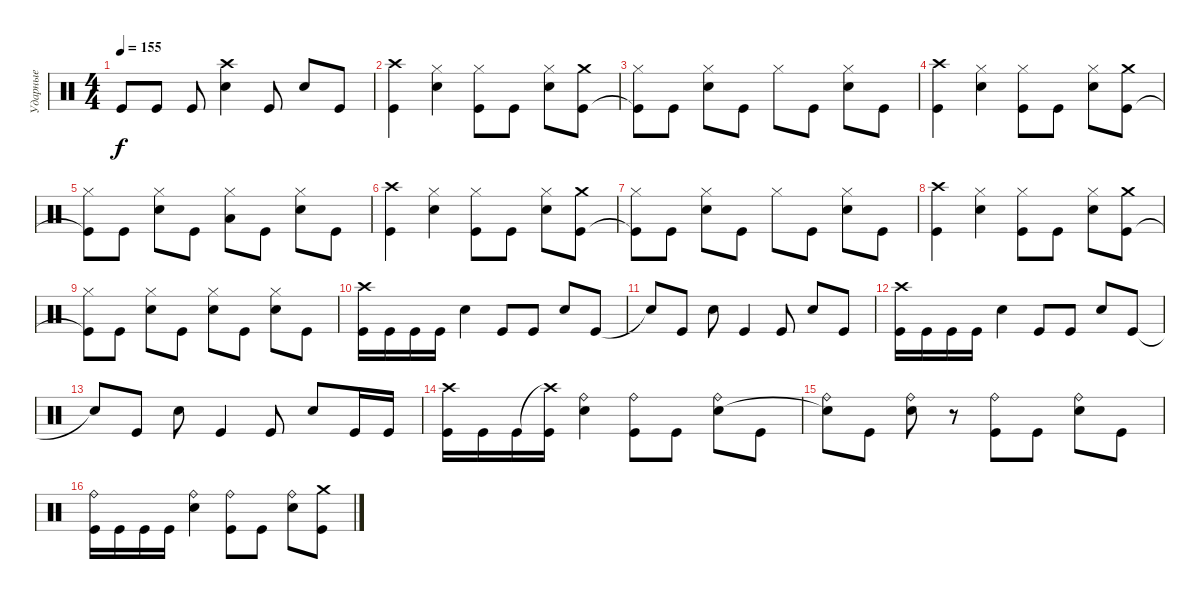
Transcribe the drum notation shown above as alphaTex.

\track ("Ударные" "Ударные") {instrument percussion}
\staff {score}
\articulation defaults
\ts (4 4)
\tempo 155
\clef neutral
\ks c "Kick (hit)"{t}.8{dy f} "Kick (hit)".8 "Kick (hit)".8
("Crash high (hit)" "Electric Snare (hit)").4 "Kick (hit)".8 "Electric Snare (hit)".8 "Kick (hit)".8 |
("Crash high (hit)" "Kick (hit)").4 ("Hi-Hat (closed)" "Electric Snare (hit)").4 ("Hi-Hat (closed)" "Kick (hit)").8 "Kick (hit)".8 ("Hi-Hat (closed)" "Electric Snare (hit)").8 ("Crash medium (hit)" "Kick (hit)").8 |
("Hi-Hat (closed)" "Kick (hit)"{t}).8 "Kick (hit)".8 ("Hi-Hat (closed)" "Electric Snare (hit)").8 "Kick (hit)".8 "Hi-Hat (closed)".8 "Kick (hit)".8 ("Hi-Hat (closed)" "Electric Snare (hit)").8 "Kick (hit)".8 |
("Crash high (hit)" "Kick (hit)").4 ("Hi-Hat (closed)" "Electric Snare (hit)").4 ("Hi-Hat (closed)" "Kick (hit)").8 "Kick (hit)".8 ("Hi-Hat (closed)" "Electric Snare (hit)").8 ("Crash medium (hit)" "Kick (hit)").8 |
("Hi-Hat (closed)" "Kick (hit)"{t}).8 "Kick (hit)".8 ("Hi-Hat (closed)" "Electric Snare (hit)").8 "Kick (hit)".8 ("Hi-Hat (closed)" "Low Tom (hit)").8 "Kick (hit)".8 ("Hi-Hat (closed)" "Electric Snare (hit)").8 "Kick (hit)".8 |
("Crash high (hit)" "Kick (hit)").4 ("Hi-Hat (closed)" "Electric Snare (hit)").4 ("Hi-Hat (closed)" "Kick (hit)").8 "Kick (hit)".8 ("Hi-Hat (closed)" "Electric Snare (hit)").8 ("Crash medium (hit)" "Kick (hit)").8 |
("Hi-Hat (closed)" "Kick (hit)"{t}).8 "Kick (hit)".8 ("Hi-Hat (closed)" "Electric Snare (hit)").8 "Kick (hit)".8 "Hi-Hat (closed)".8 "Kick (hit)".8 ("Hi-Hat (closed)" "Electric Snare (hit)").8 "Kick (hit)".8 |
("Crash high (hit)" "Kick (hit)").4 ("Hi-Hat (closed)" "Electric Snare (hit)").4 ("Hi-Hat (closed)" "Kick (hit)").8 "Kick (hit)".8 ("Hi-Hat (closed)" "Electric Snare (hit)").8 ("Crash medium (hit)" "Kick (hit)").8 |
("Hi-Hat (closed)" "Kick (hit)"{t}).8 "Kick (hit)".8 ("Hi-Hat (closed)" "Electric Snare (hit)").8 "Kick (hit)".8 ("Hi-Hat (closed)" "Electric Snare (hit)").8 "Kick (hit)".8 ("Hi-Hat (closed)" "Electric Snare (hit)").8 "Kick (hit)".8 |
("Crash high (hit)" "Kick (hit)").16 "Kick (hit)".16 "Kick (hit)".16 "Kick (hit)".16 "Electric Snare (hit)".4 "Kick (hit)".8 "Kick (hit)".8 "Electric Snare (hit)".8 "Kick (hit)".8 |
"Snare (hit)"{t}.8 "Kick (hit)".8 "Electric Snare (hit)".8 "Kick (hit)".4 "Kick (hit)".8 "Electric Snare (hit)".8 "Kick (hit)".8 |
("Crash high (hit)" "Kick (hit)").16 "Kick (hit)".16 "Kick (hit)".16 "Kick (hit)".16 "Electric Snare (hit)".4 "Kick (hit)".8 "Kick (hit)".8 "Electric Snare (hit)".8 "Kick (hit)".8 |
"Snare (hit)"{t}.8 "Kick (hit)".8 "Electric Snare (hit)".8 "Kick (hit)".4 "Kick (hit)".8 "Electric Snare (hit)".8 "Kick (hit)".16 "Kick (hit)".16 |
("Crash high (hit)" "Kick (hit)").16 "Kick (hit)".16 "Kick (hit)".16 ("Crash high (hit)"{t} "Kick (hit)").16 ("Ride (bell)" "Electric Snare (hit)").4 ("Ride (bell)" "Kick (hit)").8 "Kick (hit)".8 ("Ride (bell)" "Electric Snare (hit)").8 "Kick (hit)".8 |
("Ride (bell)" "Snare (hit)"{t}).8 "Kick (hit)".8 ("Ride (bell)" "Electric Snare (hit)").8 r.8 ("Ride (bell)" "Kick (hit)").8 "Kick (hit)".8 ("Ride (bell)" "Electric Snare (hit)").8 "Kick (hit)".8 |
("Ride (bell)" "Kick (hit)").16 "Kick (hit)".16 "Kick (hit)".16 "Kick (hit)".16 ("Ride (bell)" "Electric Snare (hit)").4 ("Ride (bell)" "Kick (hit)").8 "Kick (hit)".8 ("Ride (bell)" "Electric Snare (hit)").8 ("Crash medium (hit)" "Kick (hit)").8
